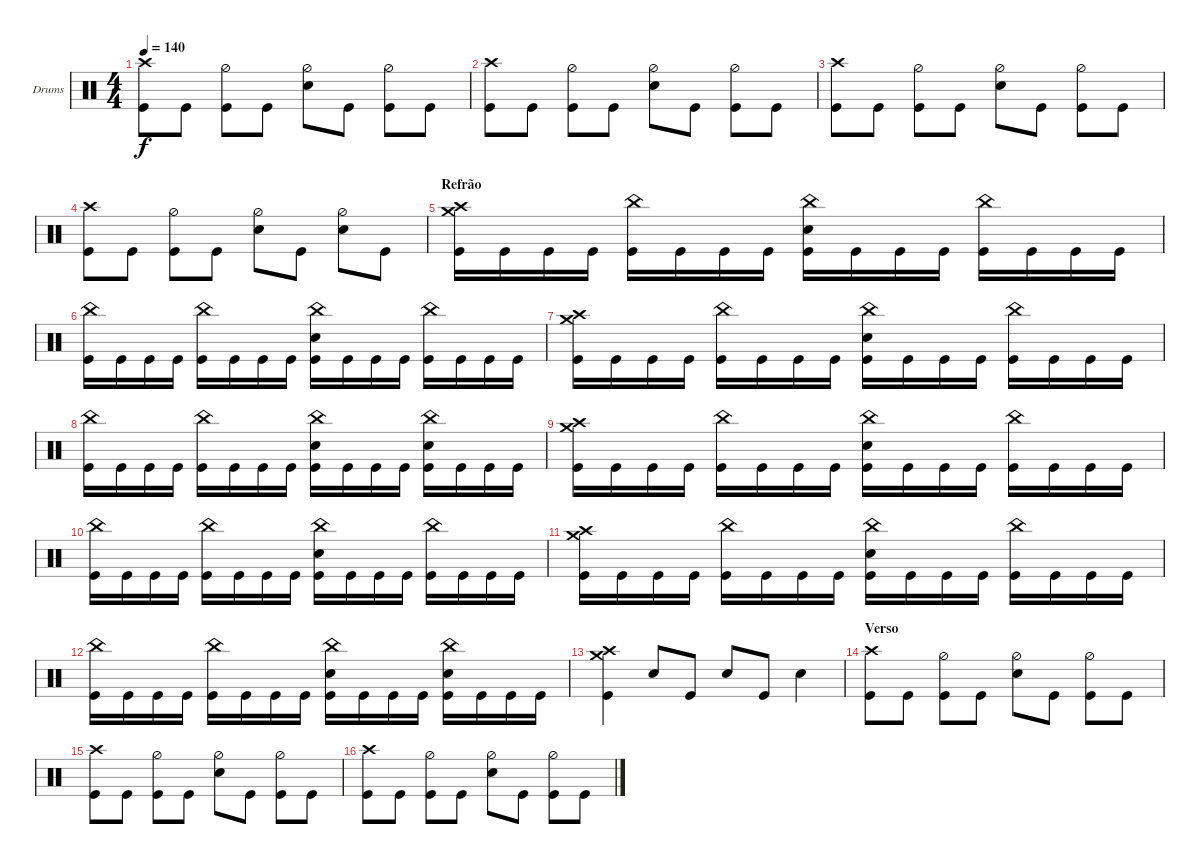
\defaultSystemsLayout 4
\bracketExtendMode groupsimilarinstruments
\firstSystemTrackNameOrientation horizontal
\otherSystemsTrackNameOrientation horizontal
\track ("Drumkit" "Drums") {instrument percussion}
\staff {score}
\articulation defaults
\ts (4 4)
\tempo 140
\clef neutral
\ks c
("Kick (hit)" "Crash high (hit)").8{dy f} "Kick (hit)".8 ("Kick (hit)" "Hi-Hat (half)").8 "Kick (hit)".8 ("Snare (hit) 2" "Hi-Hat (half)").8 "Kick (hit)".8 ("Kick (hit)" "Hi-Hat (half)").8 "Kick (hit)".8 |
("Kick (hit)" "Crash high (hit)").8 "Kick (hit)".8 ("Kick (hit)" "Hi-Hat (half)").8 "Kick (hit)".8 ("Snare (hit) 2" "Hi-Hat (half)").8 "Kick (hit)".8 ("Kick (hit)" "Hi-Hat (half)").8 "Kick (hit)".8 |
("Kick (hit)" "Crash high (hit)").8 "Kick (hit)".8 ("Kick (hit)" "Hi-Hat (half)").8 "Kick (hit)".8 ("Snare (hit) 2" "Hi-Hat (half)").8 "Kick (hit)".8 ("Kick (hit)" "Hi-Hat (half)").8 "Kick (hit)".8 |
("Kick (hit)" "Crash high (hit)").8 "Kick (hit)".8 ("Kick (hit)" "Hi-Hat (half)").8 "Kick (hit)".8 ("Snare (hit) 2" "Hi-Hat (half)").8 "Kick (hit)".8 ("Snare (hit) 2" "Hi-Hat (half)").8 "Kick (hit)".8 |
\section ("" "Refrão")
("Kick (hit)" "Crash high (hit)" "Crash medium (hit)").16 "Kick (hit)".16 "Kick (hit)".16 "Kick (hit)".16 ("Kick (hit)" "China (hit)").16 "Kick (hit)".16 "Kick (hit)".16 "Kick (hit)".16 ("Kick (hit)" "Snare (hit) 2" "China (hit)").16 "Kick (hit)".16 "Kick (hit)".16 "Kick (hit)".16 ("Kick (hit)" "China (hit)").16 "Kick (hit)".16 "Kick (hit)".16 "Kick (hit)".16 |
("Kick (hit)" "China (hit)").16 "Kick (hit)".16 "Kick (hit)".16 "Kick (hit)".16 ("Kick (hit)" "China (hit)").16 "Kick (hit)".16 "Kick (hit)".16 "Kick (hit)".16 ("Kick (hit)" "Snare (hit) 2" "China (hit)").16 "Kick (hit)".16 "Kick (hit)".16 "Kick (hit)".16 ("Kick (hit)" "China (hit)").16 "Kick (hit)".16 "Kick (hit)".16 "Kick (hit)".16 |
("Kick (hit)" "Crash high (hit)" "Crash medium (hit)").16 "Kick (hit)".16 "Kick (hit)".16 "Kick (hit)".16 ("Kick (hit)" "China (hit)").16 "Kick (hit)".16 "Kick (hit)".16 "Kick (hit)".16 ("Kick (hit)" "Snare (hit) 2" "China (hit)").16 "Kick (hit)".16 "Kick (hit)".16 "Kick (hit)".16 ("Kick (hit)" "China (hit)").16 "Kick (hit)".16 "Kick (hit)".16 "Kick (hit)".16 |
("Kick (hit)" "China (hit)").16 "Kick (hit)".16 "Kick (hit)".16 "Kick (hit)".16 ("Kick (hit)" "China (hit)").16 "Kick (hit)".16 "Kick (hit)".16 "Kick (hit)".16 ("Kick (hit)" "Snare (hit) 2" "China (hit)").16 "Kick (hit)".16 "Kick (hit)".16 "Kick (hit)".16 ("Kick (hit)" "China (hit)" "Snare (hit) 2").16 "Kick (hit)".16 "Kick (hit)".16 "Kick (hit)".16 |
("Kick (hit)" "Crash high (hit)" "Crash medium (hit)").16 "Kick (hit)".16 "Kick (hit)".16 "Kick (hit)".16 ("Kick (hit)" "China (hit)").16 "Kick (hit)".16 "Kick (hit)".16 "Kick (hit)".16 ("Kick (hit)" "Snare (hit) 2" "China (hit)").16 "Kick (hit)".16 "Kick (hit)".16 "Kick (hit)".16 ("Kick (hit)" "China (hit)").16 "Kick (hit)".16 "Kick (hit)".16 "Kick (hit)".16 |
("Kick (hit)" "China (hit)").16 "Kick (hit)".16 "Kick (hit)".16 "Kick (hit)".16 ("Kick (hit)" "China (hit)").16 "Kick (hit)".16 "Kick (hit)".16 "Kick (hit)".16 ("Kick (hit)" "Snare (hit) 2" "China (hit)").16 "Kick (hit)".16 "Kick (hit)".16 "Kick (hit)".16 ("Kick (hit)" "China (hit)").16 "Kick (hit)".16 "Kick (hit)".16 "Kick (hit)".16 |
("Kick (hit)" "Crash high (hit)" "Crash medium (hit)").16 "Kick (hit)".16 "Kick (hit)".16 "Kick (hit)".16 ("Kick (hit)" "China (hit)").16 "Kick (hit)".16 "Kick (hit)".16 "Kick (hit)".16 ("Kick (hit)" "Snare (hit) 2" "China (hit)").16 "Kick (hit)".16 "Kick (hit)".16 "Kick (hit)".16 ("Kick (hit)" "China (hit)").16 "Kick (hit)".16 "Kick (hit)".16 "Kick (hit)".16 |
("Kick (hit)" "China (hit)").16 "Kick (hit)".16 "Kick (hit)".16 "Kick (hit)".16 ("Kick (hit)" "China (hit)").16 "Kick (hit)".16 "Kick (hit)".16 "Kick (hit)".16 ("Kick (hit)" "Snare (hit) 2" "China (hit)").16 "Kick (hit)".16 "Kick (hit)".16 "Kick (hit)".16 ("Kick (hit)" "China (hit)" "Snare (hit) 2").16 "Kick (hit)".16 "Kick (hit)".16 "Kick (hit)".16 |
("Kick (hit)" "Crash high (hit)" "Crash medium (hit)").4 "Snare (hit) 2".8 "Kick (hit)".8 "Snare (hit) 2".8 "Kick (hit)".8 "Snare (hit) 2".4 |
\section ("" "Verso")
("Kick (hit)" "Crash high (hit)").8 "Kick (hit)".8 ("Kick (hit)" "Hi-Hat (half)").8 "Kick (hit)".8 ("Snare (hit) 2" "Hi-Hat (half)").8 "Kick (hit)".8 ("Kick (hit)" "Hi-Hat (half)").8 "Kick (hit)".8 |
("Kick (hit)" "Crash high (hit)").8 "Kick (hit)".8 ("Kick (hit)" "Hi-Hat (half)").8 "Kick (hit)".8 ("Snare (hit) 2" "Hi-Hat (half)").8 "Kick (hit)".8 ("Kick (hit)" "Hi-Hat (half)").8 "Kick (hit)".8 |
("Kick (hit)" "Crash high (hit)").8 "Kick (hit)".8 ("Kick (hit)" "Hi-Hat (half)").8 "Kick (hit)".8 ("Snare (hit) 2" "Hi-Hat (half)").8 "Kick (hit)".8 ("Kick (hit)" "Hi-Hat (half)").8 "Kick (hit)".8
